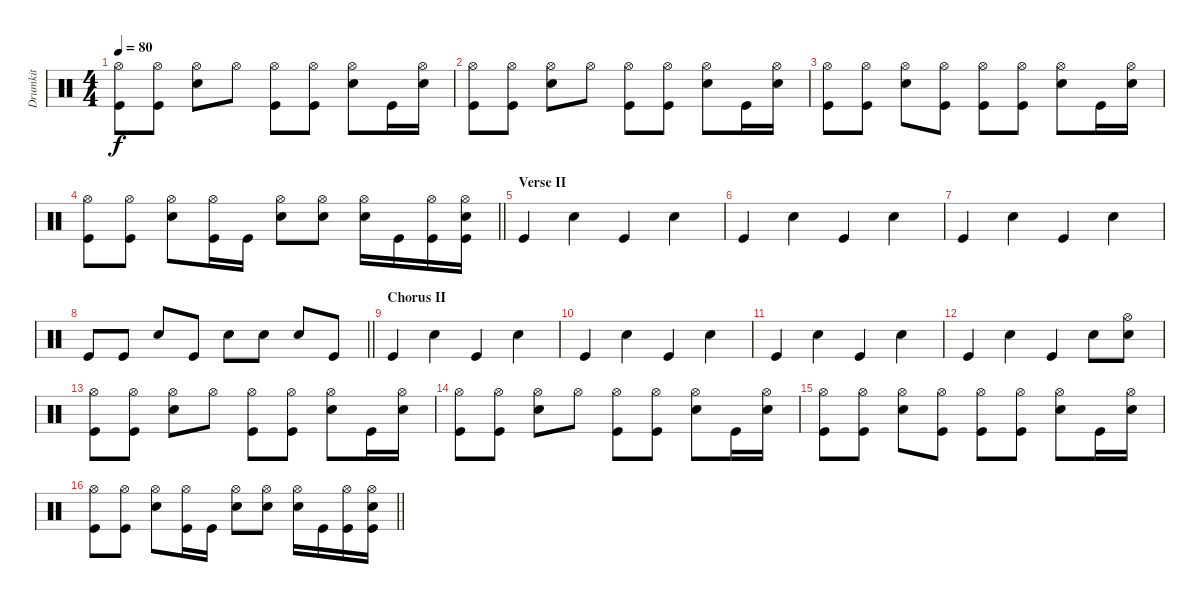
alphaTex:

\track ("Drumkit" "Drumkit") {instrument percussion}
\staff {score}
\articulation defaults
\ts (4 4)
\tempo 80
\clef neutral
\ks c
("Hi-Hat (open)" "Kick (hit)").8{dy f} ("Hi-Hat (open)" "Kick (hit)").8 ("Hi-Hat (open)" "Snare (hit) 2").8 "Hi-Hat (open)".8 ("Hi-Hat (open)" "Kick (hit)").8 ("Hi-Hat (open)" "Kick (hit)").8 ("Hi-Hat (open)" "Snare (hit) 2").8 "Kick (hit)".16 ("Hi-Hat (open)" "Snare (hit) 2").16 |
("Hi-Hat (open)" "Kick (hit)").8 ("Hi-Hat (open)" "Kick (hit)").8 ("Hi-Hat (open)" "Snare (hit) 2").8 "Hi-Hat (open)".8 ("Hi-Hat (open)" "Kick (hit)").8 ("Hi-Hat (open)" "Kick (hit)").8 ("Hi-Hat (open)" "Snare (hit) 2").8 "Kick (hit)".16 ("Hi-Hat (open)" "Snare (hit) 2").16 |
("Hi-Hat (open)" "Kick (hit)").8 ("Hi-Hat (open)" "Kick (hit)").8 ("Hi-Hat (open)" "Snare (hit) 2").8 ("Hi-Hat (open)" "Kick (hit)").8 ("Hi-Hat (open)" "Kick (hit)").8 ("Hi-Hat (open)" "Kick (hit)").8 ("Hi-Hat (open)" "Snare (hit) 2").8 "Kick (hit)".16 ("Hi-Hat (open)" "Snare (hit) 2").16 |
\barLineRight lightlight
("Hi-Hat (open)" "Kick (hit)").8 ("Hi-Hat (open)" "Kick (hit)").8 ("Hi-Hat (open)" "Snare (hit) 2").8 ("Hi-Hat (open)" "Kick (hit)").16 "Kick (hit)".16 ("Hi-Hat (open)" "Snare (hit) 2").8 ("Hi-Hat (open)" "Snare (hit) 2").8 ("Hi-Hat (open)" "Snare (hit) 2").16 "Kick (hit)".16 ("Hi-Hat (open)" "Kick (hit)").16 ("Hi-Hat (open)" "Snare (hit) 2" "Kick (hit)").16 |
\section ("" "Verse II")
"Kick (hit)".4 "Snare (hit) 2".4 "Kick (hit)".4 "Snare (hit) 2".4 |
"Kick (hit)".4 "Snare (hit) 2".4 "Kick (hit)".4 "Snare (hit) 2".4 |
"Kick (hit)".4 "Snare (hit) 2".4 "Kick (hit)".4 "Snare (hit) 2".4 |
\barLineRight lightlight "Kick (hit)".8 "Kick (hit)".8 "Snare (hit) 2".8 "Kick (hit)".8 "Snare (hit) 2".8 "Snare (hit) 2".8 "Snare (hit) 2".8 "Kick (hit)".8
|
\section ("" "Chorus II")
"Kick (hit)".4 "Snare (hit) 2".4 "Kick (hit)".4 "Snare (hit) 2".4 |
"Kick (hit)".4 "Snare (hit) 2".4 "Kick (hit)".4 "Snare (hit) 2".4 |
"Kick (hit)".4 "Snare (hit) 2".4 "Kick (hit)".4 "Snare (hit) 2".4 |
"Kick (hit)".4 "Snare (hit) 2".4 "Kick (hit)".4 "Snare (hit) 2".8 ("Hi-Hat (open)" "Snare (hit) 2").8 |
("Hi-Hat (open)" "Kick (hit)").8 ("Hi-Hat (open)" "Kick (hit)").8 ("Hi-Hat (open)" "Snare (hit) 2").8 "Hi-Hat (open)".8 ("Hi-Hat (open)" "Kick (hit)").8 ("Hi-Hat (open)" "Kick (hit)").8 ("Hi-Hat (open)" "Snare (hit) 2").8 "Kick (hit)".16 ("Hi-Hat (open)" "Snare (hit) 2").16 |
("Hi-Hat (open)" "Kick (hit)").8 ("Hi-Hat (open)" "Kick (hit)").8 ("Hi-Hat (open)" "Snare (hit) 2").8 "Hi-Hat (open)".8 ("Hi-Hat (open)" "Kick (hit)").8 ("Hi-Hat (open)" "Kick (hit)").8 ("Hi-Hat (open)" "Snare (hit) 2").8 "Kick (hit)".16 ("Hi-Hat (open)" "Snare (hit) 2").16 |
("Hi-Hat (open)" "Kick (hit)").8 ("Hi-Hat (open)" "Kick (hit)").8 ("Hi-Hat (open)" "Snare (hit) 2").8 ("Hi-Hat (open)" "Kick (hit)").8 ("Hi-Hat (open)" "Kick (hit)").8 ("Hi-Hat (open)" "Kick (hit)").8 ("Hi-Hat (open)" "Snare (hit) 2").8 "Kick (hit)".16 ("Hi-Hat (open)" "Snare (hit) 2").16 |
\barLineRight lightlight
("Hi-Hat (open)" "Kick (hit)").8 ("Hi-Hat (open)" "Kick (hit)").8 ("Hi-Hat (open)" "Snare (hit) 2").8 ("Hi-Hat (open)" "Kick (hit)").16 "Kick (hit)".16 ("Hi-Hat (open)" "Snare (hit) 2").8 ("Hi-Hat (open)" "Snare (hit) 2").8 ("Hi-Hat (open)" "Snare (hit) 2").16 "Kick (hit)".16 ("Hi-Hat (open)" "Kick (hit)").16 ("Hi-Hat (open)" "Snare (hit) 2" "Kick (hit)").16
